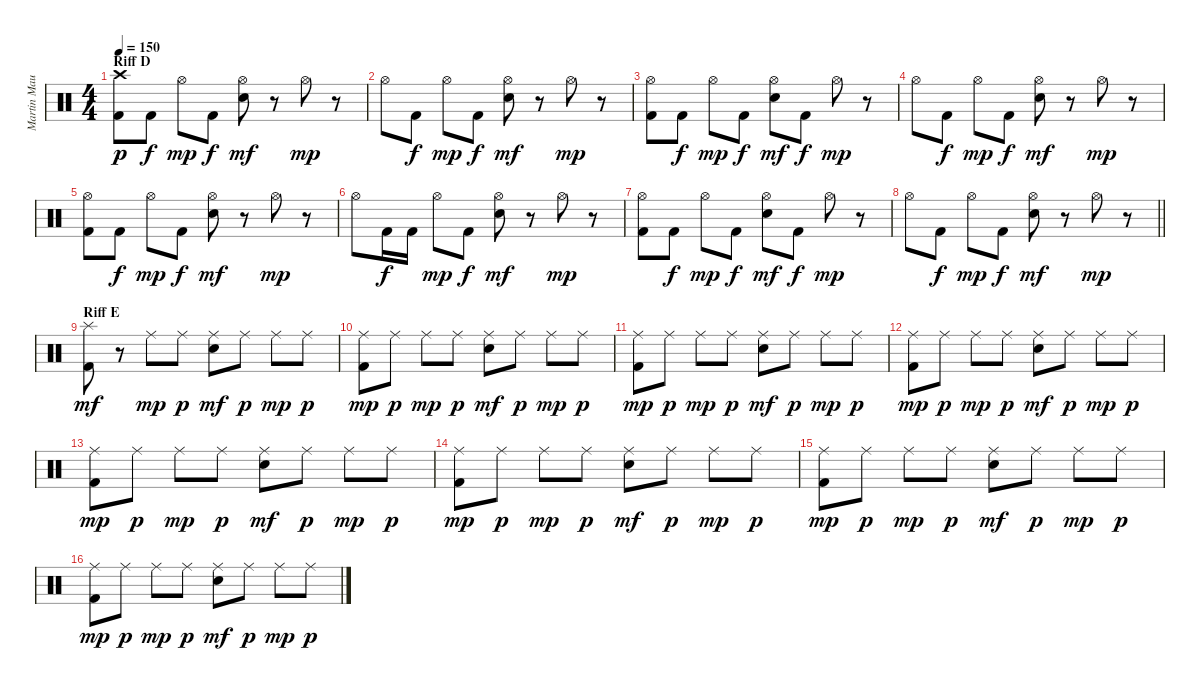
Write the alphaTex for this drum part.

\track ("Martin Maurais" "Martin Mau") {instrument percussion}
\staff {score}
\articulation defaults
\ts (4 4)
\section ("" "Riff D")
\tempo 150
\clef neutral
\ks c
("Crash high (hit)" "Kick (hit) 2").8{dy p} "Kick (hit) 2".8{dy f} "Hi-Hat (open)".8{dy mp} "Kick (hit) 2".8{dy f} ("Hi-Hat (open)" "Electric Snare (hit)").8{dy mf} r.8 "Hi-Hat (open)".8{dy mp} r.8 |
"Hi-Hat (open)".8 "Kick (hit) 2".8{dy f} "Hi-Hat (open)".8{dy mp} "Kick (hit) 2".8{dy f} ("Hi-Hat (open)" "Electric Snare (hit)").8{dy mf} r.8 "Hi-Hat (open)".8{dy mp} r.8 |
("Hi-Hat (open)" "Kick (hit) 2").8 "Kick (hit) 2".8{dy f} "Hi-Hat (open)".8{dy mp} "Kick (hit) 2".8{dy f} ("Hi-Hat (open)" "Electric Snare (hit)").8{dy mf} "Kick (hit) 2".8{dy f} "Hi-Hat (open)".8{dy mp} r.8 |
"Hi-Hat (open)".8 "Kick (hit) 2".8{dy f} "Hi-Hat (open)".8{dy mp} "Kick (hit) 2".8{dy f} ("Hi-Hat (open)" "Electric Snare (hit)").8{dy mf} r.8 "Hi-Hat (open)".8{dy mp} r.8 |
("Hi-Hat (open)" "Kick (hit) 2").8 "Kick (hit) 2".8{dy f} "Hi-Hat (open)".8{dy mp} "Kick (hit) 2".8{dy f} ("Hi-Hat (open)" "Electric Snare (hit)").8{dy mf} r.8 "Hi-Hat (open)".8{dy mp} r.8 |
"Hi-Hat (open)".8 "Kick (hit) 2".16{dy f} "Kick (hit) 2".16 "Hi-Hat (open)".8{dy mp} "Kick (hit) 2".8{dy f} ("Hi-Hat (open)" "Electric Snare (hit)").8{dy mf} r.8 "Hi-Hat (open)".8{dy mp} r.8 |
("Hi-Hat (open)" "Kick (hit) 2").8 "Kick (hit) 2".8{dy f} "Hi-Hat (open)".8{dy mp} "Kick (hit) 2".8{dy f} ("Hi-Hat (open)" "Electric Snare (hit)").8{dy mf} "Kick (hit) 2".8{dy f} "Hi-Hat (open)".8{dy mp} r.8 |
\barLineRight lightlight "Hi-Hat (open)".8 "Kick (hit) 2".8{dy f} "Hi-Hat (open)".8{dy mp} "Kick (hit) 2".8{dy f}
("Hi-Hat (open)" "Electric Snare (hit)").8{dy mf} r.8 "Hi-Hat (open)".8{dy mp} r.8 |
\section ("" "Riff E")
("Splash (hit)" "Kick (hit) 2").8{dy mf} r.8 "Ride (middle)".8{dy mp} "Ride (middle)".8{dy p} ("Ride (middle)" "Electric Snare (hit)").8{dy mf} "Ride (middle)".8{dy p} "Ride (middle)".8{dy mp} "Ride (middle)".8{dy p} |
("Ride (middle)" "Kick (hit) 2").8{dy mp} "Ride (middle)".8{dy p} "Ride (middle)".8{dy mp} "Ride (middle)".8{dy p} ("Ride (middle)" "Electric Snare (hit)").8{dy mf} "Ride (middle)".8{dy p} "Ride (middle)".8{dy mp} "Ride (middle)".8{dy p} |
("Ride (middle)" "Kick (hit) 2").8{dy mp} "Ride (middle)".8{dy p} "Ride (middle)".8{dy mp} "Ride (middle)".8{dy p} ("Ride (middle)" "Electric Snare (hit)").8{dy mf} "Ride (middle)".8{dy p} "Ride (middle)".8{dy mp} "Ride (middle)".8{dy p} |
("Ride (middle)" "Kick (hit) 2").8{dy mp} "Ride (middle)".8{dy p} "Ride (middle)".8{dy mp} "Ride (middle)".8{dy p} ("Ride (middle)" "Electric Snare (hit)").8{dy mf} "Ride (middle)".8{dy p} "Ride (middle)".8{dy mp} "Ride (middle)".8{dy p} |
("Ride (middle)" "Kick (hit) 2").8{dy mp} "Ride (middle)".8{dy p} "Ride (middle)".8{dy mp} "Ride (middle)".8{dy p} ("Ride (middle)" "Electric Snare (hit)").8{dy mf} "Ride (middle)".8{dy p} "Ride (middle)".8{dy mp} "Ride (middle)".8{dy p} |
("Ride (middle)" "Kick (hit) 2").8{dy mp} "Ride (middle)".8{dy p} "Ride (middle)".8{dy mp} "Ride (middle)".8{dy p} ("Ride (middle)" "Electric Snare (hit)").8{dy mf} "Ride (middle)".8{dy p} "Ride (middle)".8{dy mp} "Ride (middle)".8{dy p} |
("Ride (middle)" "Kick (hit) 2").8{dy mp} "Ride (middle)".8{dy p} "Ride (middle)".8{dy mp} "Ride (middle)".8{dy p} ("Ride (middle)" "Electric Snare (hit)").8{dy mf} "Ride (middle)".8{dy p} "Ride (middle)".8{dy mp} "Ride (middle)".8{dy p} |
("Ride (middle)" "Kick (hit) 2").8{dy mp} "Ride (middle)".8{dy p} "Ride (middle)".8{dy mp} "Ride (middle)".8{dy p} ("Ride (middle)" "Electric Snare (hit)").8{dy mf} "Ride (middle)".8{dy p} "Ride (middle)".8{dy mp} "Ride (middle)".8{dy p}
